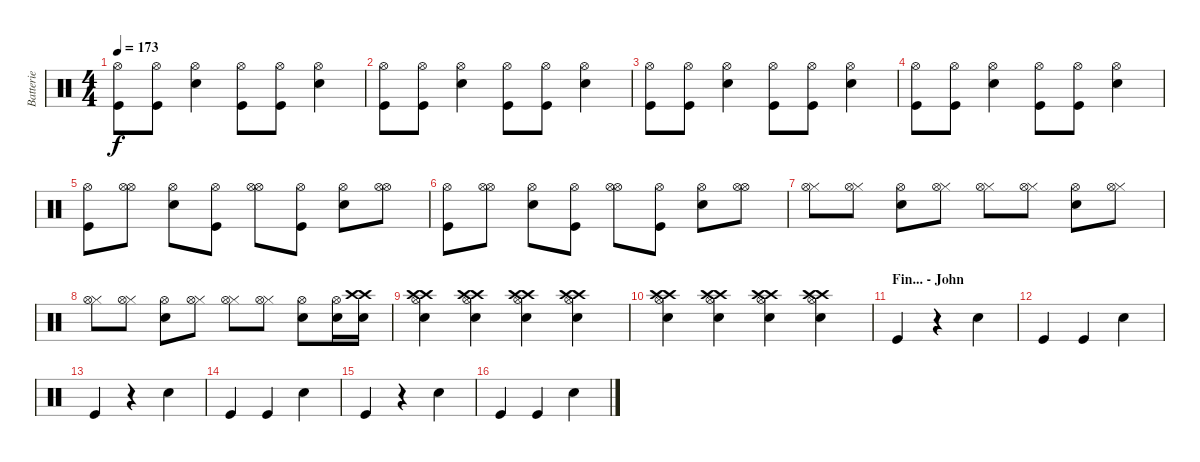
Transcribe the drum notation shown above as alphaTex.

\track ("Batterie" "Batterie") {instrument percussion}
\staff {score}
\articulation defaults
\ts (4 4)
\tempo 173
\clef neutral
\ks c
("Kick (hit)" "Hi-Hat (open)").8{dy f volume 12} ("Kick (hit)" "Hi-Hat (open)").8 ("Electric Snare (hit)" "Hi-Hat (open)").4{volume 16} ("Kick (hit)" "Hi-Hat (open)").8{volume 12} ("Kick (hit)" "Hi-Hat (open)").8 ("Electric Snare (hit)" "Hi-Hat (open)").4{volume 16} |
("Kick (hit)" "Hi-Hat (open)").8{volume 12} ("Kick (hit)" "Hi-Hat (open)").8 ("Electric Snare (hit)" "Hi-Hat (open)").4{volume 16} ("Kick (hit)" "Hi-Hat (open)").8{volume 12} ("Kick (hit)" "Hi-Hat (open)").8 ("Electric Snare (hit)" "Hi-Hat (open)").4{volume 16} |
("Kick (hit)" "Hi-Hat (open)").8{volume 12} ("Kick (hit)" "Hi-Hat (open)").8 ("Electric Snare (hit)" "Hi-Hat (open)").4{volume 16} ("Kick (hit)" "Hi-Hat (open)").8{volume 12} ("Kick (hit)" "Hi-Hat (open)").8 ("Electric Snare (hit)" "Hi-Hat (open)").4{volume 16} |
("Kick (hit)" "Hi-Hat (open)").8{volume 12} ("Kick (hit)" "Hi-Hat (open)").8 ("Electric Snare (hit)" "Hi-Hat (open)").4{volume 16} ("Kick (hit)" "Hi-Hat (open)").8{volume 12} ("Kick (hit)" "Hi-Hat (open)").8 ("Electric Snare (hit)" "Hi-Hat (open)").4{volume 16} |
("Kick (hit)" "Hi-Hat (open)").8 ("Hi-Hat (open)" "Hi-Hat (open)").8 ("Electric Snare (hit)" "Hi-Hat (open)").8 ("Kick (hit)" "Hi-Hat (open)").8 ("Hi-Hat (open)" "Hi-Hat (open)").8 ("Kick (hit)" "Hi-Hat (open)").8 ("Electric Snare (hit)" "Hi-Hat (open)").8 ("Hi-Hat (open)" "Hi-Hat (open)").8 |
("Kick (hit)" "Hi-Hat (open)").8 ("Hi-Hat (open)" "Hi-Hat (open)").8 ("Electric Snare (hit)" "Hi-Hat (open)").8 ("Kick (hit)" "Hi-Hat (open)").8 ("Hi-Hat (open)" "Hi-Hat (open)").8 ("Kick (hit)" "Hi-Hat (open)").8 ("Electric Snare (hit)" "Hi-Hat (open)").8 ("Hi-Hat (open)" "Hi-Hat (open)").8 |
("Hi-Hat (closed)" "Hi-Hat (open)").8 ("Hi-Hat (closed)" "Hi-Hat (open)").8 ("Electric Snare (hit)" "Hi-Hat (open)").8 ("Hi-Hat (closed)" "Hi-Hat (open)").8 ("Hi-Hat (closed)" "Hi-Hat (open)").8 ("Hi-Hat (closed)" "Hi-Hat (open)").8 ("Electric Snare (hit)" "Hi-Hat (open)").8 ("Hi-Hat (closed)" "Hi-Hat (open)").8 |
("Hi-Hat (closed)" "Hi-Hat (open)").8 ("Hi-Hat (closed)" "Hi-Hat (open)").8 ("Electric Snare (hit)" "Hi-Hat (open)").8 ("Hi-Hat (closed)" "Hi-Hat (open)").8 ("Hi-Hat (closed)" "Hi-Hat (open)").8 ("Hi-Hat (closed)" "Hi-Hat (open)").8 ("Electric Snare (hit)" "Hi-Hat (open)").8 ("Electric Snare (hit)" "Hi-Hat (open)").16 ("Electric Snare (hit)" "Crash high (hit)" "Crash high (hit)").16 |
("Electric Snare (hit)" "Crash high (hit)" "Hi-Hat (open)" "Crash high (hit)").4 ("Electric Snare (hit)" "Crash high (hit)" "Hi-Hat (open)" "Crash high (hit)").4 ("Electric Snare (hit)" "Crash high (hit)" "Hi-Hat (open)" "Crash high (hit)").4 ("Electric Snare (hit)" "Crash high (hit)" "Hi-Hat (open)" "Crash high (hit)").4 |
("Electric Snare (hit)" "Crash high (hit)" "Hi-Hat (open)" "Crash high (hit)").4 ("Electric Snare (hit)" "Crash high (hit)" "Hi-Hat (open)" "Crash high (hit)").4 ("Electric Snare (hit)" "Crash high (hit)" "Hi-Hat (open)" "Crash high (hit)").4 ("Electric Snare (hit)" "Crash high (hit)" "Hi-Hat (open)" "Crash high (hit)").4 |
\section ("" "Fin... - John")
"Kick (hit)".4{volume 11} r.4 "Electric Snare (hit)".4 |
"Kick (hit)".4 "Kick (hit)".4 "Electric Snare (hit)".4 |
"Kick (hit)".4 r.4 "Electric Snare (hit)".4 |
"Kick (hit)".4 "Kick (hit)".4 "Electric Snare (hit)".4 |
"Kick (hit)".4 r.4 "Electric Snare (hit)".4 |
"Kick (hit)".4 "Kick (hit)".4 "Electric Snare (hit)".4
